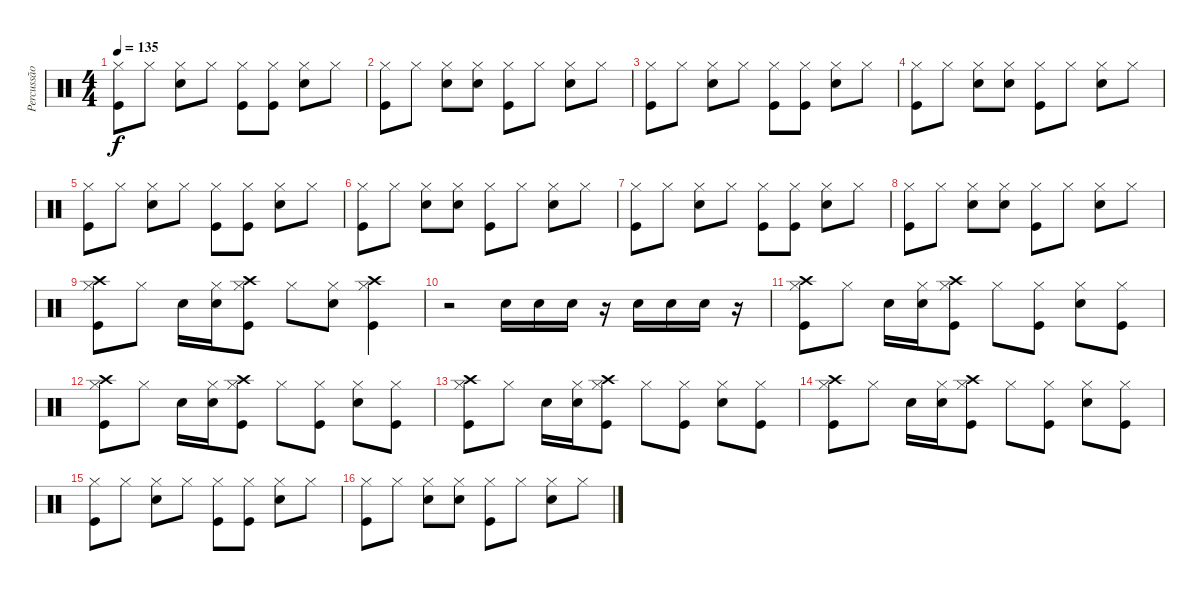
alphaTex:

\track ("Percussão" "Percussão") {instrument percussion}
\staff {score}
\articulation defaults
\ts (4 4)
\tempo 135
\clef neutral
\ks c
("Hi-Hat (closed)" "Kick (hit)").8{dy f} "Hi-Hat (closed)".8 ("Hi-Hat (closed)" "Snare (hit) 2").8 "Hi-Hat (closed)".8 ("Hi-Hat (closed)" "Kick (hit)").8 ("Hi-Hat (closed)" "Kick (hit)").8 ("Hi-Hat (closed)" "Snare (hit) 2").8 "Hi-Hat (closed)".8 |
("Hi-Hat (closed)" "Kick (hit)").8 "Hi-Hat (closed)".8 ("Hi-Hat (closed)" "Snare (hit) 2").8 ("Hi-Hat (closed)" "Snare (hit) 2").8 ("Hi-Hat (closed)" "Kick (hit)").8 "Hi-Hat (closed)".8 ("Hi-Hat (closed)" "Snare (hit) 2").8 "Hi-Hat (closed)".8 |
("Hi-Hat (closed)" "Kick (hit)").8 "Hi-Hat (closed)".8 ("Hi-Hat (closed)" "Snare (hit) 2").8 "Hi-Hat (closed)".8 ("Hi-Hat (closed)" "Kick (hit)").8 ("Hi-Hat (closed)" "Kick (hit)").8 ("Hi-Hat (closed)" "Snare (hit) 2").8 "Hi-Hat (closed)".8 |
("Hi-Hat (closed)" "Kick (hit)").8 "Hi-Hat (closed)".8 ("Hi-Hat (closed)" "Snare (hit) 2").8 ("Hi-Hat (closed)" "Snare (hit) 2").8 ("Hi-Hat (closed)" "Kick (hit)").8 "Hi-Hat (closed)".8 ("Hi-Hat (closed)" "Snare (hit) 2").8 "Hi-Hat (closed)".8 |
("Hi-Hat (closed)" "Kick (hit)").8 "Hi-Hat (closed)".8 ("Hi-Hat (closed)" "Snare (hit) 2").8 "Hi-Hat (closed)".8 ("Hi-Hat (closed)" "Kick (hit)").8 ("Hi-Hat (closed)" "Kick (hit)").8 ("Hi-Hat (closed)" "Snare (hit) 2").8 "Hi-Hat (closed)".8 |
("Hi-Hat (closed)" "Kick (hit)").8 "Hi-Hat (closed)".8 ("Hi-Hat (closed)" "Snare (hit) 2").8 ("Hi-Hat (closed)" "Snare (hit) 2").8 ("Hi-Hat (closed)" "Kick (hit)").8 "Hi-Hat (closed)".8 ("Hi-Hat (closed)" "Snare (hit) 2").8 "Hi-Hat (closed)".8 |
("Hi-Hat (closed)" "Kick (hit)").8 "Hi-Hat (closed)".8 ("Hi-Hat (closed)" "Snare (hit) 2").8 "Hi-Hat (closed)".8 ("Hi-Hat (closed)" "Kick (hit)").8 ("Hi-Hat (closed)" "Kick (hit)").8 ("Hi-Hat (closed)" "Snare (hit) 2").8 "Hi-Hat (closed)".8 |
("Hi-Hat (closed)" "Kick (hit)").8 "Hi-Hat (closed)".8 ("Hi-Hat (closed)" "Snare (hit) 2").8 ("Hi-Hat (closed)" "Snare (hit) 2").8 ("Hi-Hat (closed)" "Kick (hit)").8 "Hi-Hat (closed)".8 ("Hi-Hat (closed)" "Snare (hit) 2").8 "Hi-Hat (closed)".8 |
("Crash high (hit)" "Hi-Hat (closed)" "Kick (hit)").8 "Hi-Hat (closed)".8 "Snare (hit) 2".16 ("Hi-Hat (closed)" "Snare (hit) 2").16 ("Crash high (hit)" "Hi-Hat (closed)" "Kick (hit)").8 "Hi-Hat (closed)".8 ("Hi-Hat (closed)" "Snare (hit) 2").8 ("Crash high (hit)" "Hi-Hat (closed)" "Kick (hit)").4 |
r.2 "Snare (hit) 2".16 "Snare (hit) 2".16 "Snare (hit) 2".16 r.16 "Snare (hit) 2".16 "Snare (hit) 2".16 "Snare (hit) 2".16 r.16 |
("Crash high (hit)" "Hi-Hat (closed)" "Kick (hit)").8 "Hi-Hat (closed)".8 "Snare (hit) 2".16 ("Hi-Hat (closed)" "Snare (hit) 2").16 ("Crash high (hit)" "Hi-Hat (closed)" "Kick (hit)").8 "Hi-Hat (closed)".8 ("Hi-Hat (closed)" "Kick (hit)").8 ("Hi-Hat (closed)" "Snare (hit) 2").8 ("Hi-Hat (closed)" "Kick (hit)").8 |
("Crash high (hit)" "Hi-Hat (closed)" "Kick (hit)").8 "Hi-Hat (closed)".8 "Snare (hit) 2".16 ("Hi-Hat (closed)" "Snare (hit) 2").16 ("Crash high (hit)" "Hi-Hat (closed)" "Kick (hit)").8 "Hi-Hat (closed)".8 ("Hi-Hat (closed)" "Kick (hit)").8 ("Hi-Hat (closed)" "Snare (hit) 2").8 ("Hi-Hat (closed)" "Kick (hit)").8 |
("Crash high (hit)" "Hi-Hat (closed)" "Kick (hit)").8 "Hi-Hat (closed)".8 "Snare (hit) 2".16 ("Hi-Hat (closed)" "Snare (hit) 2").16 ("Crash high (hit)" "Hi-Hat (closed)" "Kick (hit)").8 "Hi-Hat (closed)".8 ("Hi-Hat (closed)" "Kick (hit)").8 ("Hi-Hat (closed)" "Snare (hit) 2").8 ("Hi-Hat (closed)" "Kick (hit)").8 |
("Crash high (hit)" "Hi-Hat (closed)" "Kick (hit)").8 "Hi-Hat (closed)".8 "Snare (hit) 2".16 ("Hi-Hat (closed)" "Snare (hit) 2").16 ("Crash high (hit)" "Hi-Hat (closed)" "Kick (hit)").8 "Hi-Hat (closed)".8 ("Hi-Hat (closed)" "Kick (hit)").8 ("Hi-Hat (closed)" "Snare (hit) 2").8 ("Hi-Hat (closed)" "Kick (hit)").8 |
("Hi-Hat (closed)" "Kick (hit)").8 "Hi-Hat (closed)".8 ("Hi-Hat (closed)" "Snare (hit) 2").8 "Hi-Hat (closed)".8 ("Hi-Hat (closed)" "Kick (hit)").8 ("Hi-Hat (closed)" "Kick (hit)").8 ("Hi-Hat (closed)" "Snare (hit) 2").8 "Hi-Hat (closed)".8 |
("Hi-Hat (closed)" "Kick (hit)").8 "Hi-Hat (closed)".8 ("Hi-Hat (closed)" "Snare (hit) 2").8 ("Hi-Hat (closed)" "Snare (hit) 2").8 ("Hi-Hat (closed)" "Kick (hit)").8 "Hi-Hat (closed)".8 ("Hi-Hat (closed)" "Snare (hit) 2").8 "Hi-Hat (closed)".8
